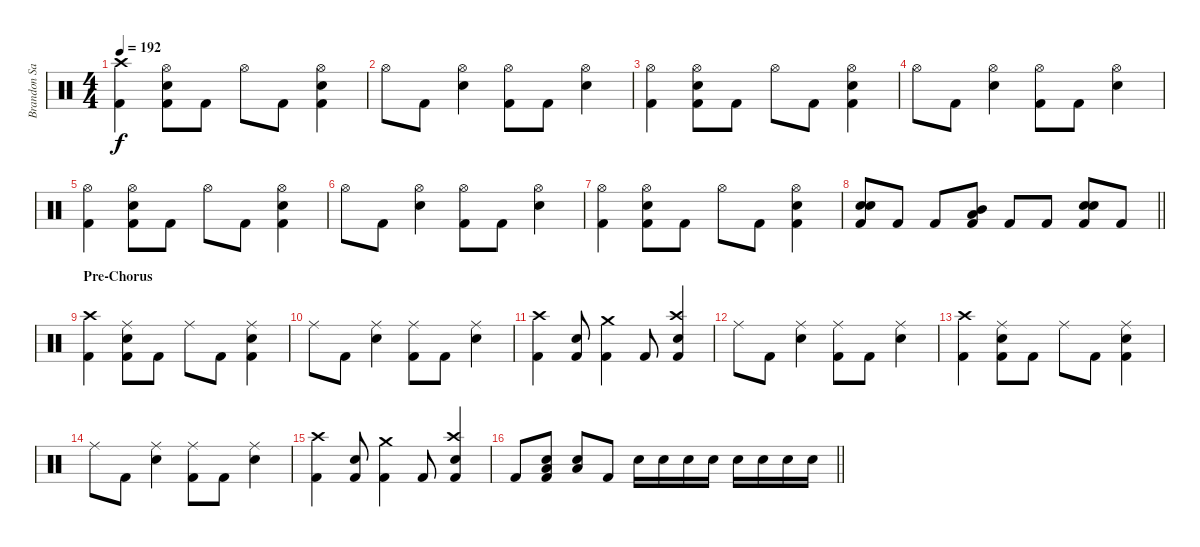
\track ("Brandon Saller" "Brandon Sa") {instrument percussion}
\staff {score}
\articulation defaults
\ts (4 4)
\tempo 192
\clef neutral
\ks aminor
("Kick (hit) 2" "Crash high (hit)").4{dy f} ("Kick (hit) 2" "Snare (hit) 2" "Hi-Hat (open)").8 "Kick (hit) 2".8 "Hi-Hat (open)".8 "Kick (hit) 2".8 ("Kick (hit) 2" "Snare (hit) 2" "Hi-Hat (open)").4 |
"Hi-Hat (open)".8 "Kick (hit) 2".8 ("Snare (hit) 2" "Hi-Hat (open)").4 ("Kick (hit) 2" "Hi-Hat (open)").8 "Kick (hit) 2".8 ("Snare (hit) 2" "Hi-Hat (open)").4 |
("Kick (hit) 2" "Hi-Hat (open)").4 ("Kick (hit) 2" "Snare (hit) 2" "Hi-Hat (open)").8 "Kick (hit) 2".8 "Hi-Hat (open)".8 "Kick (hit) 2".8 ("Kick (hit) 2" "Snare (hit) 2" "Hi-Hat (open)").4 |
"Hi-Hat (open)".8 "Kick (hit) 2".8 ("Snare (hit) 2" "Hi-Hat (open)").4 ("Kick (hit) 2" "Hi-Hat (open)").8 "Kick (hit) 2".8 ("Snare (hit) 2" "Hi-Hat (open)").4 |
("Kick (hit) 2" "Hi-Hat (open)").4 ("Kick (hit) 2" "Snare (hit) 2" "Hi-Hat (open)").8 "Kick (hit) 2".8 "Hi-Hat (open)".8 "Kick (hit) 2".8 ("Kick (hit) 2" "Snare (hit) 2" "Hi-Hat (open)").4 |
"Hi-Hat (open)".8 "Kick (hit) 2".8 ("Snare (hit) 2" "Hi-Hat (open)").4 ("Kick (hit) 2" "Hi-Hat (open)").8 "Kick (hit) 2".8 ("Snare (hit) 2" "Hi-Hat (open)").4 |
("Kick (hit) 2" "Hi-Hat (open)").4 ("Kick (hit) 2" "Snare (hit) 2" "Hi-Hat (open)").8 "Kick (hit) 2".8 "Hi-Hat (open)".8 "Kick (hit) 2".8 ("Kick (hit) 2" "Snare (hit) 2" "Hi-Hat (open)").4 |
\barLineRight lightlight
("Kick (hit) 2" "Snare (hit) 2" "Snare (hit) 2").8 "Kick (hit) 2".8 "Kick (hit) 2".8 ("Kick (hit) 2" "Mid Tom (hit)" "Low Floor Tom (hit)").8 "Kick (hit) 2".8 "Kick (hit) 2".8 ("Kick (hit) 2" "Snare (hit) 2" "Snare (hit) 2").8 "Kick (hit) 2".8 |
\section ("" "Pre-Chorus")
("Kick (hit) 2" "Crash high (hit)").4 ("Kick (hit) 2" "Snare (hit) 2" "Ride (middle)").8 "Kick (hit) 2".8 "Ride (middle)".8 "Kick (hit) 2".8 ("Kick (hit) 2" "Snare (hit) 2" "Ride (middle)").4 |
"Ride (middle)".8 "Kick (hit) 2".8 ("Snare (hit) 2" "Ride (middle)").4 ("Kick (hit) 2" "Ride (middle)").8 "Kick (hit) 2".8 ("Snare (hit) 2" "Ride (middle)").4 |
("Kick (hit) 2" "Crash high (hit)").4 ("Kick (hit) 2" "Snare (hit) 2").8 ("Kick (hit) 2" "Crash medium (hit)").4 "Kick (hit) 2".8 ("Kick (hit) 2" "Snare (hit) 2" "Crash high (hit)").4 |
"Ride (middle)".8 "Kick (hit) 2".8 ("Snare (hit) 2" "Ride (middle)").4 ("Kick (hit) 2" "Ride (middle)").8 "Kick (hit) 2".8 ("Snare (hit) 2" "Ride (middle)").4 |
("Kick (hit) 2" "Crash high (hit)").4 ("Kick (hit) 2" "Snare (hit) 2" "Ride (middle)").8 "Kick (hit) 2".8 "Ride (middle)".8 "Kick (hit) 2".8 ("Kick (hit) 2" "Snare (hit) 2" "Ride (middle)").4 |
"Ride (middle)".8 "Kick (hit) 2".8 ("Snare (hit) 2" "Ride (middle)").4 ("Kick (hit) 2" "Ride (middle)").8 "Kick (hit) 2".8 ("Snare (hit) 2" "Ride (middle)").4 |
("Kick (hit) 2" "Crash high (hit)").4 ("Kick (hit) 2" "Snare (hit) 2").8 ("Kick (hit) 2" "Crash medium (hit)").4 "Kick (hit) 2".8 ("Kick (hit) 2" "Snare (hit) 2" "Crash high (hit)").4 |
\barLineRight lightlight "Kick (hit) 2".8
("Kick (hit) 2" "Snare (hit) 2" "Low Floor Tom (hit)").8 ("Snare (hit) 2" "Low Floor Tom (hit)").8 "Kick (hit) 2".8 "Snare (hit) 2".16 "Snare (hit) 2".16 "Snare (hit) 2".16 "Snare (hit) 2".16 "Snare (hit) 2".16 "Snare (hit) 2".16 "Snare (hit) 2".16 "Snare (hit) 2".16
